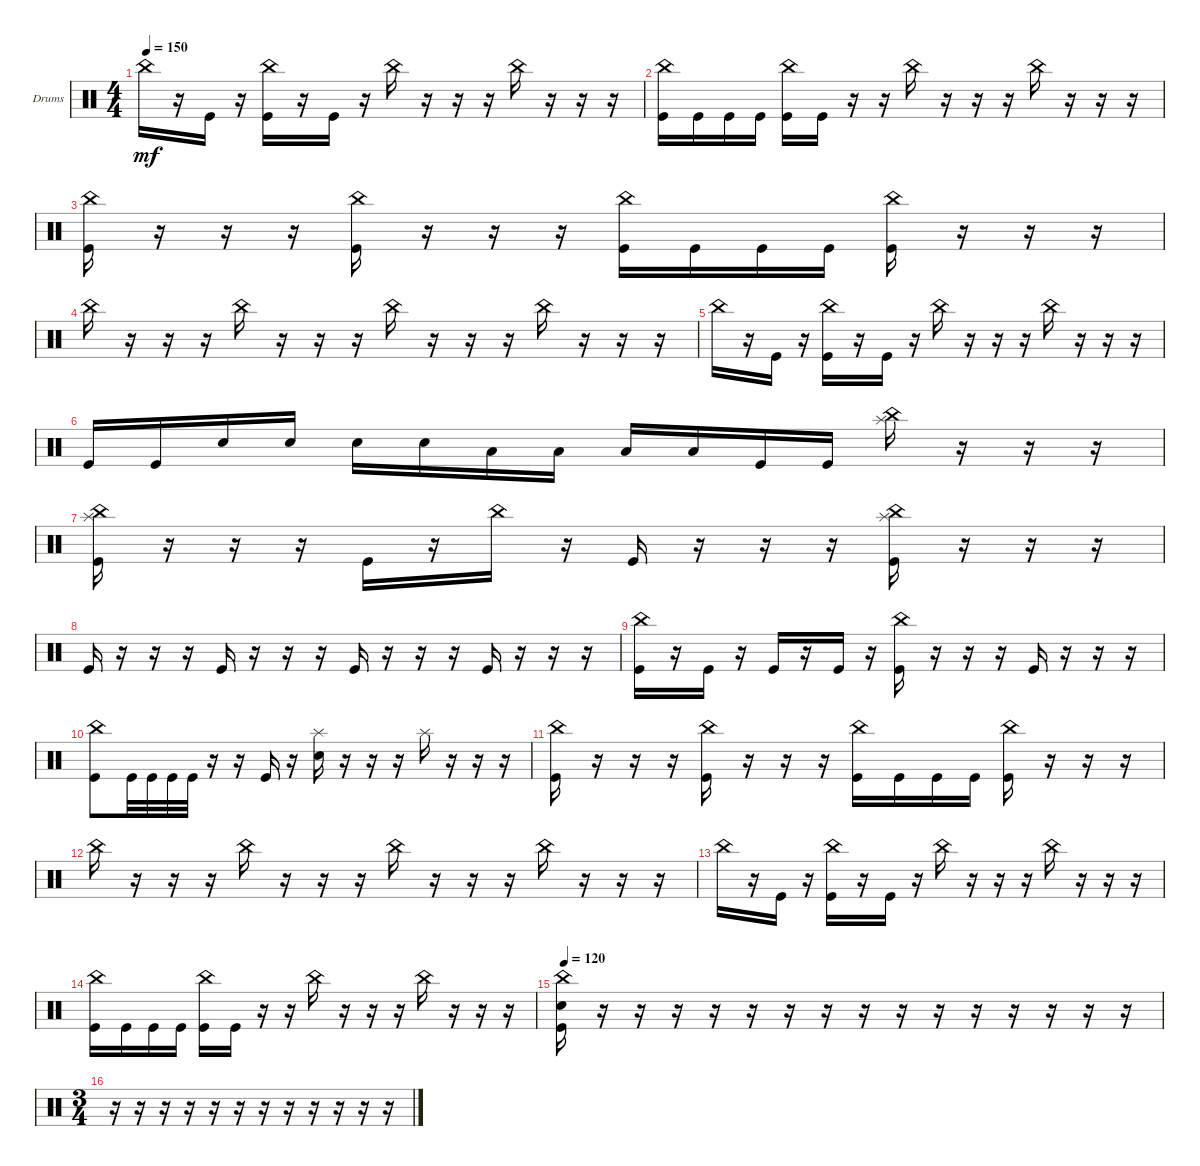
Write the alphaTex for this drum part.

\defaultSystemsLayout 4
\bracketExtendMode groupsimilarinstruments
\firstSystemTrackNameOrientation horizontal
\otherSystemsTrackNameOrientation horizontal
\track ("Drumkit" "Drums") {instrument percussion}
\staff {score}
\articulation defaults
\ts (4 4)
\tempo 150
\clef neutral
\ks c "China (hit)".16{dy mf}
r.16 "Kick (hit)".16 r.16 ("China (hit)" "Kick (hit)").16 r.16 "Kick (hit)".16 r.16 "China (hit)".16 r.16 r.16 r.16 "China (hit)".16 r.16 r.16 r.16 |
("China (hit)" "Kick (hit)").16 "Kick (hit)".16 "Kick (hit)".16 "Kick (hit)".16 ("China (hit)" "Kick (hit)").16 "Kick (hit)".16 r.16 r.16 "China (hit)".16 r.16 r.16 r.16 "China (hit)".16 r.16 r.16 r.16 |
("Kick (hit)" "China (hit)").16 r.16 r.16 r.16 ("Kick (hit)" "China (hit)").16 r.16 r.16 r.16 ("Kick (hit)" "China (hit)").16 "Kick (hit)".16 "Kick (hit)".16 "Kick (hit)".16 ("Kick (hit)" "China (hit)").16 r.16 r.16 r.16 |
"China (hit)".16 r.16 r.16 r.16 "China (hit)".16 r.16 r.16 r.16 "China (hit)".16 r.16 r.16 r.16 "China (hit)".16 r.16 r.16 r.16 |
"China (hit)".16 r.16 "Kick (hit)".16 r.16 ("China (hit)" "Kick (hit)").16 r.16 "Kick (hit)".16 r.16 "China (hit)".16 r.16 r.16 r.16 "China (hit)".16 r.16 r.16 r.16 |
"Kick (hit)".16 "Kick (hit)".16 "Snare (hit) 2".16 "Snare (hit) 2".16 "Snare (hit) 2".16 "Snare (hit) 2".16 "Low Tom (hit)".16 "Low Tom (hit)".16 "Low Tom (hit)".16 "Low Tom (hit)".16 "Kick (hit)".16 "Kick (hit)".16 ("Splash (hit)" "China (hit)").16 r.16 r.16 r.16 |
("China (hit)" "Splash (hit)" "Kick (hit)").16 r.16 r.16 r.16 "Kick (hit)".16 r.16 "China (hit)".16 r.16 "Kick (hit)".16 r.16 r.16 r.16 ("Kick (hit)" "China (hit)" "Splash (hit)").16 r.16 r.16 r.16 |
"Kick (hit)".16 r.16 r.16 r.16 "Kick (hit)".16 r.16 r.16 r.16 "Kick (hit)".16 r.16 r.16 r.16 "Kick (hit)".16 r.16 r.16 r.16 |
("Kick (hit)" "China (hit)").16 r.16 "Kick (hit)".16 r.16 "Kick (hit)".16 r.16 "Kick (hit)".16 r.16 ("Kick (hit)" "China (hit)").16 r.16 r.16 r.16 "Kick (hit)".16 r.16 r.16 r.16 |
("Kick (hit)" "China (hit)").8 "Kick (hit)".32 "Kick (hit)".32 "Kick (hit)".32 "Kick (hit)".32 r.16 r.16 "Kick (hit)".16 r.16 ("Snare (hit) 2" "Splash (hit)").16 r.16 r.16 r.16 "Splash (hit)".16 r.16 r.16 r.16 |
("Kick (hit)" "China (hit)").16 r.16 r.16 r.16 ("Kick (hit)" "China (hit)").16 r.16 r.16 r.16 ("Kick (hit)" "China (hit)").16 "Kick (hit)".16 "Kick (hit)".16 "Kick (hit)".16 ("Kick (hit)" "China (hit)").16 r.16 r.16 r.16 |
"China (hit)".16 r.16 r.16 r.16 "China (hit)".16 r.16 r.16 r.16 "China (hit)".16 r.16 r.16 r.16 "China (hit)".16 r.16 r.16 r.16 |
"China (hit)".16 r.16 "Kick (hit)".16 r.16 ("China (hit)" "Kick (hit)").16 r.16 "Kick (hit)".16 r.16 "China (hit)".16 r.16 r.16 r.16 "China (hit)".16 r.16 r.16 r.16 |
("China (hit)" "Kick (hit)").16 "Kick (hit)".16 "Kick (hit)".16 "Kick (hit)".16 ("China (hit)" "Kick (hit)").16 "Kick (hit)".16 r.16 r.16 "China (hit)".16 r.16 r.16 r.16 "China (hit)".16 r.16 r.16 r.16 |
\tempo 120
("Kick (hit)" "China (hit)" "Snare (hit) 2").16 r.16 r.16 r.16 r.16 r.16 r.16 r.16 r.16 r.16 r.16 r.16 r.16 r.16 r.16 r.16 |
\ts (3 4)
r.16 r.16 r.16 r.16 r.16 r.16 r.16 r.16 r.16 r.16 r.16 r.16
